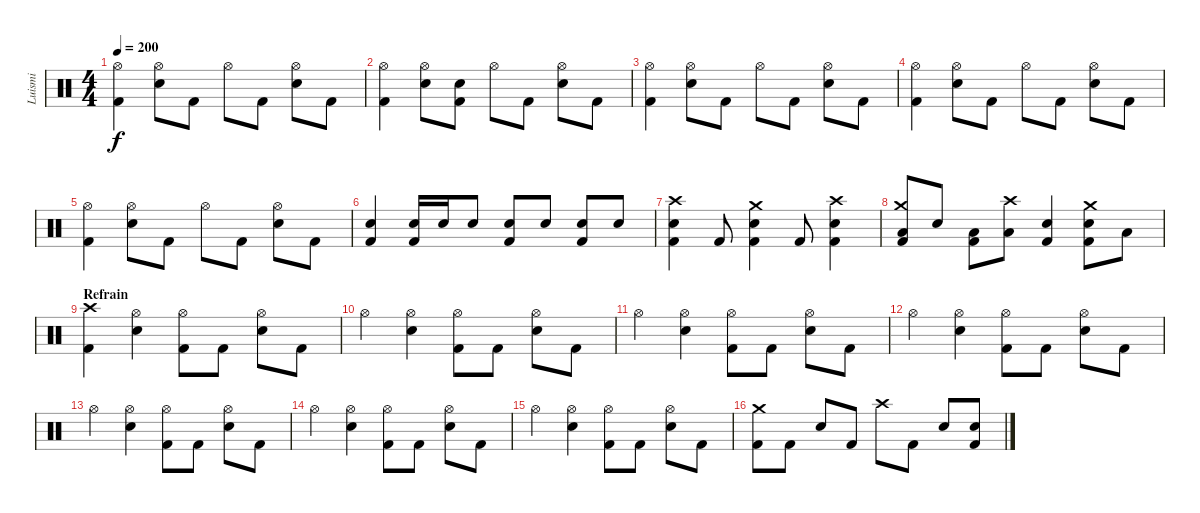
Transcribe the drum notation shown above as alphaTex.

\track ("Luismi" "Luismi") {instrument percussion}
\staff {score}
\articulation defaults
\ts (4 4)
\tempo 200
\clef neutral
\ks c
("Hi-Hat (open)" "Kick (hit) 2").4{dy f} ("Hi-Hat (open)" "Snare (hit) 2").8 "Kick (hit) 2".8 "Hi-Hat (open)".8 "Kick (hit) 2".8 ("Hi-Hat (open)" "Snare (hit) 2").8 "Kick (hit) 2".8 |
("Hi-Hat (open)" "Kick (hit) 2").4 ("Hi-Hat (open)" "Snare (hit) 2").8 ("Snare (hit) 2" "Kick (hit) 2").8 "Hi-Hat (open)".8 "Kick (hit) 2".8 ("Hi-Hat (open)" "Snare (hit) 2").8 "Kick (hit) 2".8 |
("Hi-Hat (open)" "Kick (hit) 2").4 ("Hi-Hat (open)" "Snare (hit) 2").8 "Kick (hit) 2".8 "Hi-Hat (open)".8 "Kick (hit) 2".8 ("Hi-Hat (open)" "Snare (hit) 2").8 "Kick (hit) 2".8 |
("Hi-Hat (open)" "Kick (hit) 2").4 ("Hi-Hat (open)" "Snare (hit) 2").8 "Kick (hit) 2".8 "Hi-Hat (open)".8 "Kick (hit) 2".8 ("Hi-Hat (open)" "Snare (hit) 2").8 "Kick (hit) 2".8 |
("Hi-Hat (open)" "Kick (hit) 2").4 ("Hi-Hat (open)" "Snare (hit) 2").8 "Kick (hit) 2".8 "Hi-Hat (open)".8 "Kick (hit) 2".8 ("Hi-Hat (open)" "Snare (hit) 2").8 "Kick (hit) 2".8 |
("Snare (hit) 2" "Kick (hit) 2").4 ("Snare (hit) 2" "Kick (hit) 2").16 "Snare (hit) 2".16 "Snare (hit) 2".8 ("Snare (hit) 2" "Kick (hit) 2").8 "Snare (hit) 2".8 ("Snare (hit) 2" "Kick (hit) 2").8 "Snare (hit) 2".8 |
("Crash high (hit)" "Snare (hit) 2" "Kick (hit) 2").4 "Kick (hit) 2".8 ("Crash medium (hit)" "Snare (hit) 2" "Kick (hit) 2").4 "Kick (hit) 2".8 ("Crash high (hit)" "Snare (hit) 2" "Kick (hit) 2").4 |
("Crash medium (hit)" "Low Floor Tom (hit)" "Kick (hit) 2").8 "Snare (hit) 2".8 ("Low Tom (hit)" "Kick (hit) 2").8 ("Crash high (hit)" "Low Floor Tom (hit)").8 ("Snare (hit) 2" "Kick (hit) 2").4 ("Crash medium (hit)" "Snare (hit) 2" "Kick (hit) 2").8 "Low Floor Tom (hit)".8 |
\section ("" "Refrain")
("Crash high (hit)" "Kick (hit) 2").4 ("Hi-Hat (open)" "Snare (hit) 2").4 ("Hi-Hat (open)" "Kick (hit) 2").8 "Kick (hit) 2".8 ("Hi-Hat (open)" "Snare (hit) 2").8 "Kick (hit) 2".8 |
"Hi-Hat (open)".4 ("Hi-Hat (open)" "Snare (hit) 2").4 ("Hi-Hat (open)" "Kick (hit) 2").8 "Kick (hit) 2".8 ("Hi-Hat (open)" "Snare (hit) 2").8 "Kick (hit) 2".8 |
"Hi-Hat (open)".4 ("Hi-Hat (open)" "Snare (hit) 2").4 ("Hi-Hat (open)" "Kick (hit) 2").8 "Kick (hit) 2".8 ("Hi-Hat (open)" "Snare (hit) 2").8 "Kick (hit) 2".8 |
"Hi-Hat (open)".4 ("Hi-Hat (open)" "Snare (hit) 2").4 ("Hi-Hat (open)" "Kick (hit) 2").8 "Kick (hit) 2".8 ("Hi-Hat (open)" "Snare (hit) 2").8 "Kick (hit) 2".8 |
"Hi-Hat (open)".4 ("Hi-Hat (open)" "Snare (hit) 2").4 ("Hi-Hat (open)" "Kick (hit) 2").8 "Kick (hit) 2".8 ("Hi-Hat (open)" "Snare (hit) 2").8 "Kick (hit) 2".8 |
"Hi-Hat (open)".4 ("Hi-Hat (open)" "Snare (hit) 2").4 ("Hi-Hat (open)" "Kick (hit) 2").8 "Kick (hit) 2".8 ("Hi-Hat (open)" "Snare (hit) 2").8 "Kick (hit) 2".8 |
"Hi-Hat (open)".4 ("Hi-Hat (open)" "Snare (hit) 2").4 ("Hi-Hat (open)" "Kick (hit) 2").8 "Kick (hit) 2".8 ("Hi-Hat (open)" "Snare (hit) 2").8 "Kick (hit) 2".8 |
("Crash medium (hit)" "Kick (hit) 2").8 "Kick (hit) 2".8 "Snare (hit) 2".8 "Kick (hit) 2".8 "Crash high (hit)".8 "Kick (hit) 2".8 "Snare (hit) 2".8 ("Snare (hit) 2" "Kick (hit) 2").8
